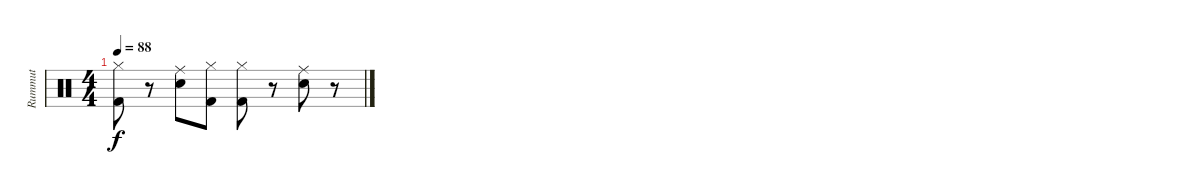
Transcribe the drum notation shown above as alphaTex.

\track ("Rummut" "Rummut") {instrument percussion}
\staff {score}
\articulation defaults
\ts (4 4)
\tempo 88
\clef neutral
\ks c
("Hi-Hat (closed)" "Kick (hit) 2").8{dy f} r.8 ("Ride (middle)" "Electric Snare (hit)").8 ("Hi-Hat (closed)" "Kick (hit) 2").8 ("Hi-Hat (closed)" "Kick (hit) 2").8 r.8 ("Ride (middle)" "Electric Snare (hit)").8 r.8
